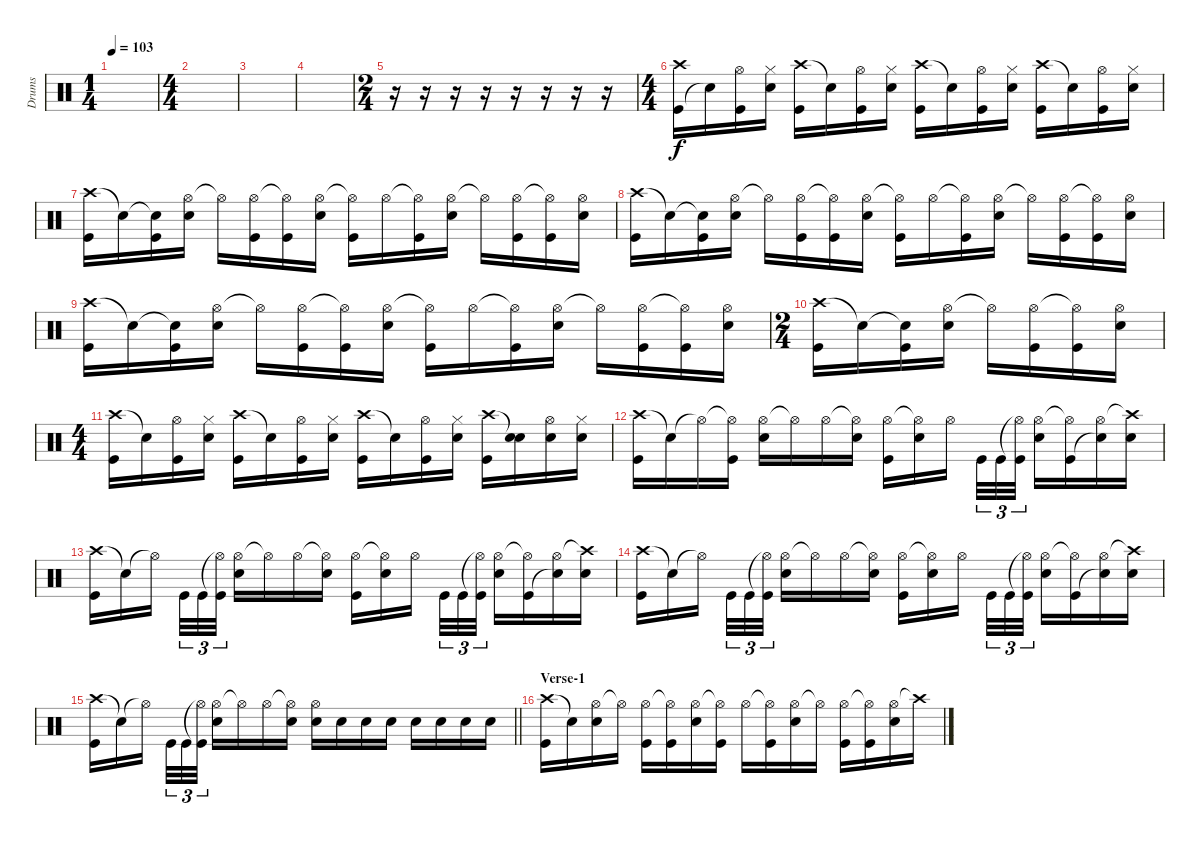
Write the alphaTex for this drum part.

\track ("Drums" "Drums") {instrument percussion}
\staff {score}
\articulation defaults
\ts (1 4)
\tempo 103
\clef neutral
\ks c
|
\ts (4 4)
|
|
|
\ts (2 4)
r.16 r.16 r.16 r.16 r.16 r.16 r.16 r.16 |
\ts (4 4)
("Kick (hit)" "Crash high (hit)").16 "Snare (hit)"{t}.16 ("Hi-Hat (open)" "Kick (hit)").16 ("Hi-Hat (closed)" "Electric Snare (hit)").16 ("Crash high (hit)" "Kick (hit)").16 "Snare (hit)"{t}.16 ("Hi-Hat (open)" "Kick (hit)").16 ("Hi-Hat (closed)" "Electric Snare (hit)").16 ("Crash high (hit)" "Kick (hit)").16 "Snare (hit)"{t}.16 ("Hi-Hat (open)" "Kick (hit)").16 ("Hi-Hat (closed)" "Electric Snare (hit)").16 ("Crash high (hit)" "Kick (hit)").16 "Snare (hit)"{t}.16 ("Hi-Hat (open)" "Kick (hit)").16 ("Hi-Hat (closed)" "Electric Snare (hit)").16 |
("Crash high (hit)" "Kick (hit)").16 "Snare (hit)"{t}.16 ("Snare (hit)"{t} "Kick (hit)").16 ("Hi-Hat (open)" "Electric Snare (hit)").16 "Hi-Hat (open)"{t}.16 ("Hi-Hat (open)" "Kick (hit)").16 ("Hi-Hat (open)"{t} "Kick (hit)").16 ("Hi-Hat (open)" "Electric Snare (hit)").16 ("Hi-Hat (open)"{t} "Kick (hit)").16 "Hi-Hat (open)".16 ("Hi-Hat (open)"{t} "Kick (hit)").16 ("Hi-Hat (open)" "Electric Snare (hit)").16 "Hi-Hat (open)"{t}.16 ("Hi-Hat (open)" "Kick (hit)").16 ("Hi-Hat (open)"{t} "Kick (hit)").16 ("Hi-Hat (open)" "Electric Snare (hit)").16 |
("Crash high (hit)" "Kick (hit)").16 "Snare (hit)"{t}.16 ("Snare (hit)"{t} "Kick (hit)").16 ("Hi-Hat (open)" "Electric Snare (hit)").16 "Hi-Hat (open)"{t}.16 ("Hi-Hat (open)" "Kick (hit)").16 ("Hi-Hat (open)"{t} "Kick (hit)").16 ("Hi-Hat (open)" "Electric Snare (hit)").16 ("Hi-Hat (open)"{t} "Kick (hit)").16 "Hi-Hat (open)".16 ("Hi-Hat (open)"{t} "Kick (hit)").16 ("Hi-Hat (open)" "Electric Snare (hit)").16 "Hi-Hat (open)"{t}.16 ("Hi-Hat (open)" "Kick (hit)").16 ("Hi-Hat (open)"{t} "Kick (hit)").16 ("Hi-Hat (open)" "Electric Snare (hit)").16 |
("Crash high (hit)" "Kick (hit)").16 "Snare (hit)"{t}.16 ("Snare (hit)"{t} "Kick (hit)").16 ("Hi-Hat (open)" "Electric Snare (hit)").16 "Hi-Hat (open)"{t}.16 ("Hi-Hat (open)" "Kick (hit)").16 ("Hi-Hat (open)"{t} "Kick (hit)").16 ("Hi-Hat (open)" "Electric Snare (hit)").16 ("Hi-Hat (open)"{t} "Kick (hit)").16 "Hi-Hat (open)".16 ("Hi-Hat (open)"{t} "Kick (hit)").16 ("Hi-Hat (open)" "Electric Snare (hit)").16 "Hi-Hat (open)"{t}.16 ("Hi-Hat (open)" "Kick (hit)").16 ("Hi-Hat (open)"{t} "Kick (hit)").16 ("Hi-Hat (open)" "Electric Snare (hit)").16 |
\ts (2 4)
("Crash high (hit)" "Kick (hit)").16 "Snare (hit)"{t}.16 ("Snare (hit)"{t} "Kick (hit)").16 ("Hi-Hat (open)" "Electric Snare (hit)").16 "Hi-Hat (open)"{t}.16 ("Hi-Hat (open)" "Kick (hit)").16 ("Hi-Hat (open)"{t} "Kick (hit)").16 ("Hi-Hat (open)" "Electric Snare (hit)").16 |
\ts (4 4)
("Crash high (hit)" "Kick (hit)").16 "Snare (hit)"{t}.16 ("Hi-Hat (open)" "Kick (hit)").16 ("Hi-Hat (closed)" "Electric Snare (hit)").16 ("Crash high (hit)" "Kick (hit)").16 "Snare (hit)"{t}.16 ("Hi-Hat (open)" "Kick (hit)").16 ("Hi-Hat (closed)" "Electric Snare (hit)").16 ("Crash high (hit)" "Kick (hit)").16 "Snare (hit)"{t}.16 ("Hi-Hat (open)" "Kick (hit)").16 ("Hi-Hat (closed)" "Electric Snare (hit)").16 ("Crash high (hit)" "Kick (hit)").16 ("Snare (hit)"{t} "Electric Snare (hit)").16 ("Hi-Hat (open)" "Electric Snare (hit)").16 ("Hi-Hat (closed)" "Electric Snare (hit)").16 |
("Crash high (hit)" "Kick (hit)").16 "Snare (hit)"{t}.16 "Hi-Hat (open)"{t}.16 ("Hi-Hat (open)"{t} "Kick (hit)").16 ("Hi-Hat (open)" "Electric Snare (hit)").16 "Hi-Hat (open)"{t}.16 "Hi-Hat (open)".16 ("Hi-Hat (open)"{t} "Electric Snare (hit)").16 ("Hi-Hat (open)" "Kick (hit)").16 ("Hi-Hat (open)"{t} "Electric Snare (hit)").16 "Hi-Hat (open)".16 "Kick (hit)".32{tu (3 2)} "Kick (hit)".32{tu (3 2)} ("Hi-Hat (open)"{t} "Kick (hit)").32{tu (3 2)} ("Hi-Hat (open)" "Electric Snare (hit)").16 ("Hi-Hat (open)"{t} "Kick (hit)").16 ("Hi-Hat (open)" "Electric Snare (hit)"{t}).16 ("Crash high (hit)"{t} "Electric Snare (hit)").16 |
("Crash high (hit)" "Kick (hit)").16 "Snare (hit)"{t}.16 "Hi-Hat (open)"{t}.16 "Kick (hit)".32{tu (3 2)} "Kick (hit)".32{tu (3 2)} ("Hi-Hat (open)"{t} "Kick (hit)").32{tu (3 2)} ("Hi-Hat (open)" "Electric Snare (hit)").16 "Hi-Hat (open)"{t}.16 "Hi-Hat (open)".16 ("Hi-Hat (open)"{t} "Electric Snare (hit)").16 ("Hi-Hat (open)" "Kick (hit)").16 ("Hi-Hat (open)"{t} "Electric Snare (hit)").16 "Hi-Hat (open)".16 "Kick (hit)".32{tu (3 2)} "Kick (hit)".32{tu (3 2)} ("Hi-Hat (open)"{t} "Kick (hit)").32{tu (3 2)} ("Hi-Hat (open)" "Electric Snare (hit)").16 ("Hi-Hat (open)"{t} "Kick (hit)").16 ("Hi-Hat (open)" "Electric Snare (hit)"{t}).16 ("Crash high (hit)"{t} "Electric Snare (hit)").16 |
("Crash high (hit)" "Kick (hit)").16 "Snare (hit)"{t}.16 "Hi-Hat (open)"{t}.16 "Kick (hit)".32{tu (3 2)} "Kick (hit)".32{tu (3 2)} ("Hi-Hat (open)"{t} "Kick (hit)").32{tu (3 2)} ("Hi-Hat (open)" "Electric Snare (hit)").16 "Hi-Hat (open)"{t}.16 "Hi-Hat (open)".16 ("Hi-Hat (open)"{t} "Electric Snare (hit)").16 ("Hi-Hat (open)" "Kick (hit)").16 ("Hi-Hat (open)"{t} "Electric Snare (hit)").16 "Hi-Hat (open)".16 "Kick (hit)".32{tu (3 2)} "Kick (hit)".32{tu (3 2)} ("Hi-Hat (open)"{t} "Kick (hit)").32{tu (3 2)} ("Hi-Hat (open)" "Electric Snare (hit)").16 ("Hi-Hat (open)"{t} "Kick (hit)").16 ("Hi-Hat (open)" "Electric Snare (hit)"{t}).16 ("Crash high (hit)"{t} "Electric Snare (hit)").16 |
\barLineRight lightlight
("Crash high (hit)" "Kick (hit)").16 "Snare (hit)"{t}.16 "Hi-Hat (open)"{t}.16 "Kick (hit)".32{tu (3 2)} "Kick (hit)".32{tu (3 2)} ("Hi-Hat (open)"{t} "Kick (hit)").32{tu (3 2)} ("Hi-Hat (open)" "Electric Snare (hit)").16 "Hi-Hat (open)"{t}.16 "Hi-Hat (open)".16 ("Hi-Hat (open)"{t} "Electric Snare (hit)").16 ("Hi-Hat (open)" "Electric Snare (hit)").16 "Electric Snare (hit)".16 "Electric Snare (hit)".16 "Electric Snare (hit)".16 "Electric Snare (hit)".16 "Electric Snare (hit)".16 "Electric Snare (hit)".16 "Electric Snare (hit)".16 |
\section ("" "Verse-1")
("Crash high (hit)" "Kick (hit)").16 "Snare (hit)"{t}.16 ("Hi-Hat (open)" "Electric Snare (hit)").16 "Hi-Hat (open)"{t}.16 ("Hi-Hat (open)" "Kick (hit)").16 ("Hi-Hat (open)"{t} "Kick (hit)").16 ("Hi-Hat (open)" "Electric Snare (hit)").16 ("Hi-Hat (open)"{t} "Kick (hit)").16 "Hi-Hat (open)".16 ("Hi-Hat (open)"{t} "Kick (hit)").16 ("Hi-Hat (open)" "Electric Snare (hit)").16 "Hi-Hat (open)"{t}.16 ("Hi-Hat (open)" "Kick (hit)").16 ("Hi-Hat (open)"{t} "Kick (hit)").16 ("Hi-Hat (open)" "Electric Snare (hit)").16 "Crash high (hit)"{t}.16
